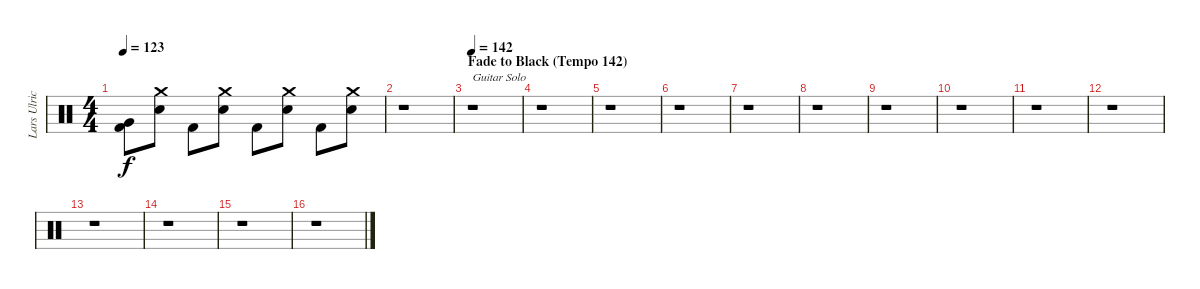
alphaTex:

\track ("Lars Ulrich (Drums)" "Lars Ulric") {instrument percussion}
\staff {score}
\articulation defaults
\ts (4 4)
\tempo 123
\clef neutral
\ks c
("Kick (hit) 2" "Very Low Tom (hit)").8{dy f} ("Crash medium (hit)" "Snare (hit) 2").8 "Kick (hit) 2".8 ("Snare (hit) 2" "Crash medium (hit)").8 "Kick (hit) 2".8 ("Crash medium (hit)" "Snare (hit) 2").8 "Kick (hit) 2".8 ("Crash medium (hit)" "Snare (hit) 2").8 |
r.1 |
\section ("" "Fade to Black (Tempo 142)")
\tempo 142
r.1{txt "Guitar Solo"} |
r.1 |
r.1 |
r.1 |
r.1 |
r.1 |
r.1 |
r.1 |
r.1 |
r.1 |
r.1 |
r.1 |
r.1 |
r.1
